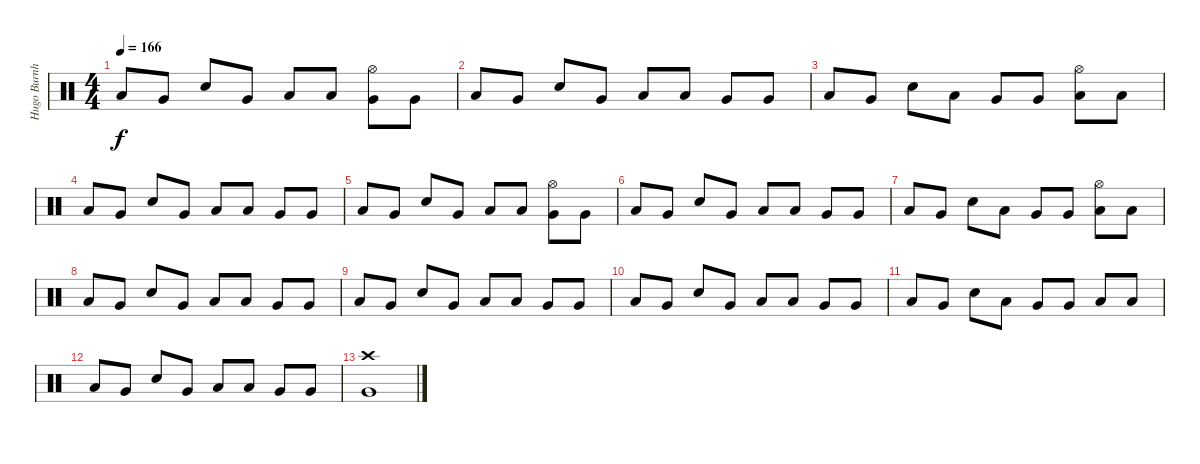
\track ("Hugo Burnham" "Hugo Burnh") {instrument percussion}
\staff {score}
\articulation defaults
\ts (4 4)
\tempo 166
\clef neutral
\ks c "Low Tom (hit)".8{dy f} "Very Low Tom (hit)".8 "Electric Snare (hit)".8 "Very Low Tom (hit)".8 "Low Tom (hit)".8 "Low Tom (hit)".8
("Hi-Hat (open)" "Very Low Tom (hit)").8 "Very Low Tom (hit)".8 |
"Low Tom (hit)".8 "Very Low Tom (hit)".8 "Electric Snare (hit)".8 "Very Low Tom (hit)".8 "Low Tom (hit)".8 "Low Tom (hit)".8 "Very Low Tom (hit)".8 "Very Low Tom (hit)".8 |
"Low Tom (hit)".8 "Very Low Tom (hit)".8 "Electric Snare (hit)".8 "Low Tom (hit)".8 "Very Low Tom (hit)".8 "Very Low Tom (hit)".8 ("Hi-Hat (open)" "Low Tom (hit)").8 "Low Tom (hit)".8 |
"Low Tom (hit)".8 "Very Low Tom (hit)".8 "Electric Snare (hit)".8 "Very Low Tom (hit)".8 "Low Tom (hit)".8 "Low Tom (hit)".8 "Very Low Tom (hit)".8 "Very Low Tom (hit)".8 |
"Low Tom (hit)".8 "Very Low Tom (hit)".8 "Electric Snare (hit)".8 "Very Low Tom (hit)".8 "Low Tom (hit)".8 "Low Tom (hit)".8 ("Hi-Hat (open)" "Very Low Tom (hit)").8 "Very Low Tom (hit)".8 |
"Low Tom (hit)".8 "Very Low Tom (hit)".8 "Electric Snare (hit)".8 "Very Low Tom (hit)".8 "Low Tom (hit)".8 "Low Tom (hit)".8 "Very Low Tom (hit)".8 "Very Low Tom (hit)".8 |
"Low Tom (hit)".8 "Very Low Tom (hit)".8 "Electric Snare (hit)".8 "Low Tom (hit)".8 "Very Low Tom (hit)".8 "Very Low Tom (hit)".8 ("Hi-Hat (open)" "Low Tom (hit)").8 "Low Tom (hit)".8 |
"Low Tom (hit)".8 "Very Low Tom (hit)".8 "Electric Snare (hit)".8 "Very Low Tom (hit)".8 "Low Tom (hit)".8 "Low Tom (hit)".8 "Very Low Tom (hit)".8 "Very Low Tom (hit)".8 |
"Low Tom (hit)".8 "Very Low Tom (hit)".8 "Electric Snare (hit)".8 "Very Low Tom (hit)".8 "Low Tom (hit)".8 "Low Tom (hit)".8 "Very Low Tom (hit)".8 "Very Low Tom (hit)".8 |
"Low Tom (hit)".8 "Very Low Tom (hit)".8 "Electric Snare (hit)".8 "Very Low Tom (hit)".8 "Low Tom (hit)".8 "Low Tom (hit)".8 "Very Low Tom (hit)".8 "Very Low Tom (hit)".8 |
"Low Tom (hit)".8 "Very Low Tom (hit)".8 "Electric Snare (hit)".8 "Low Tom (hit)".8 "Very Low Tom (hit)".8 "Very Low Tom (hit)".8 "Low Tom (hit)".8 "Low Tom (hit)".8 |
"Low Tom (hit)".8 "Very Low Tom (hit)".8 "Electric Snare (hit)".8 "Very Low Tom (hit)".8 "Low Tom (hit)".8 "Low Tom (hit)".8 "Very Low Tom (hit)".8 "Very Low Tom (hit)".8 |
("Crash high (hit)" "Very Low Tom (hit)").1
